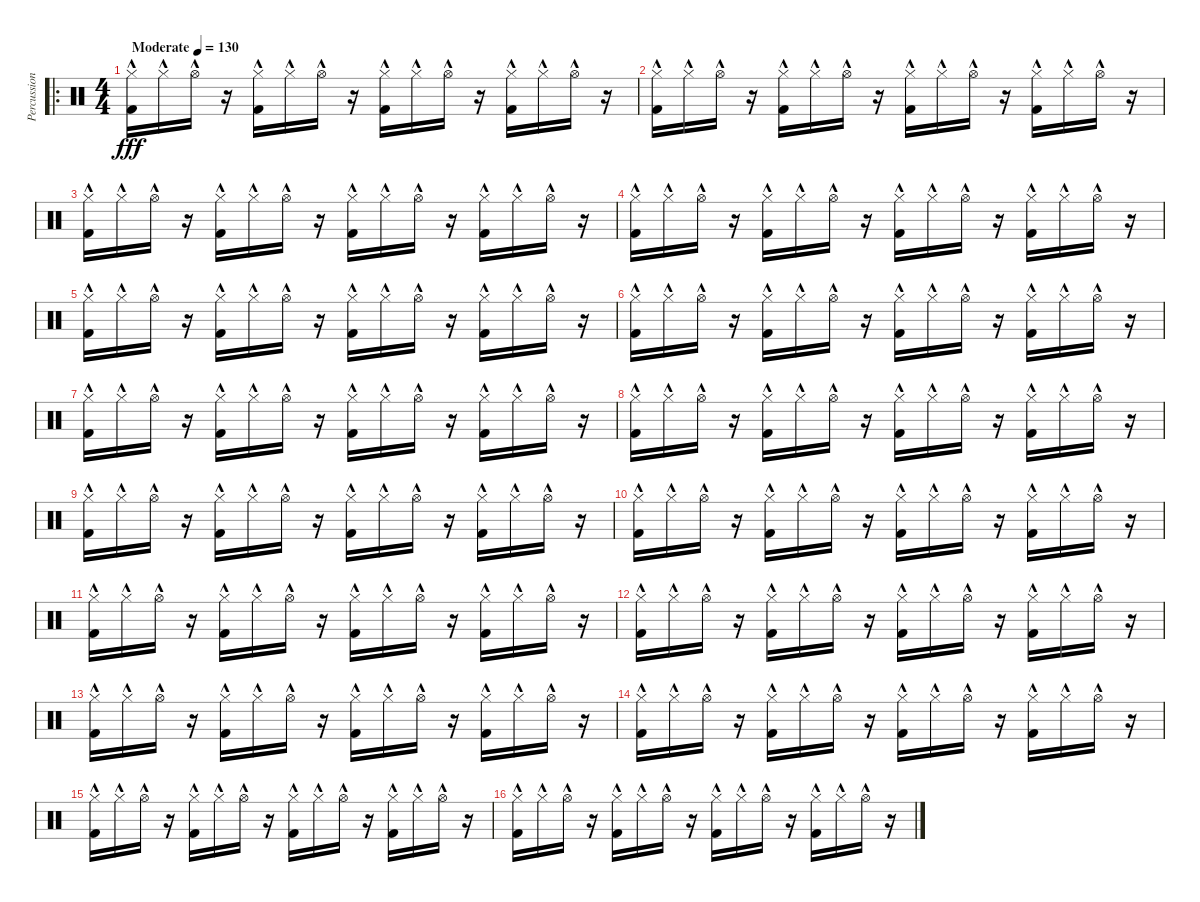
\track ("Percussion" "Percussion") {instrument percussion bank 118}
\staff {score}
\articulation defaults
\ro
\ts (4 4)
\tempo (130 "Moderate")
\clef neutral
\ks c
("Hi-Hat (closed)"{hac} "Kick (hit) 2"{hac}).16{dy fff} "Hi-Hat (closed)"{hac}.16 "Hi-Hat (open)"{hac}.16 r.16 ("Hi-Hat (closed)"{hac} "Kick (hit) 2"{hac}).16 "Hi-Hat (closed)"{hac}.16 "Hi-Hat (open)"{hac}.16 r.16 ("Hi-Hat (closed)"{hac} "Kick (hit) 2"{hac}).16 "Hi-Hat (closed)"{hac}.16 "Hi-Hat (open)"{hac}.16 r.16 ("Hi-Hat (closed)"{hac} "Kick (hit) 2"{hac}).16 "Hi-Hat (closed)"{hac}.16 "Hi-Hat (open)"{hac}.16 r.16 |
("Hi-Hat (closed)"{hac} "Kick (hit) 2"{hac}).16 "Hi-Hat (closed)"{hac}.16 "Hi-Hat (open)"{hac}.16 r.16 ("Hi-Hat (closed)"{hac} "Kick (hit) 2"{hac}).16 "Hi-Hat (closed)"{hac}.16 "Hi-Hat (open)"{hac}.16 r.16 ("Hi-Hat (closed)"{hac} "Kick (hit) 2"{hac}).16 "Hi-Hat (closed)"{hac}.16 "Hi-Hat (open)"{hac}.16 r.16 ("Hi-Hat (closed)"{hac} "Kick (hit) 2"{hac}).16 "Hi-Hat (closed)"{hac}.16 "Hi-Hat (open)"{hac}.16 r.16 |
("Hi-Hat (closed)"{hac} "Kick (hit) 2"{hac}).16 "Hi-Hat (closed)"{hac}.16 "Hi-Hat (open)"{hac}.16 r.16 ("Hi-Hat (closed)"{hac} "Kick (hit) 2"{hac}).16 "Hi-Hat (closed)"{hac}.16 "Hi-Hat (open)"{hac}.16 r.16 ("Hi-Hat (closed)"{hac} "Kick (hit) 2"{hac}).16 "Hi-Hat (closed)"{hac}.16 "Hi-Hat (open)"{hac}.16 r.16 ("Hi-Hat (closed)"{hac} "Kick (hit) 2"{hac}).16 "Hi-Hat (closed)"{hac}.16 "Hi-Hat (open)"{hac}.16 r.16 |
("Hi-Hat (closed)"{hac} "Kick (hit) 2"{hac}).16 "Hi-Hat (closed)"{hac}.16 "Hi-Hat (open)"{hac}.16 r.16 ("Hi-Hat (closed)"{hac} "Kick (hit) 2"{hac}).16 "Hi-Hat (closed)"{hac}.16 "Hi-Hat (open)"{hac}.16 r.16 ("Hi-Hat (closed)"{hac} "Kick (hit) 2"{hac}).16 "Hi-Hat (closed)"{hac}.16 "Hi-Hat (open)"{hac}.16 r.16 ("Hi-Hat (closed)"{hac} "Kick (hit) 2"{hac}).16 "Hi-Hat (closed)"{hac}.16 "Hi-Hat (open)"{hac}.16 r.16 |
("Hi-Hat (closed)"{hac} "Kick (hit) 2"{hac}).16 "Hi-Hat (closed)"{hac}.16 "Hi-Hat (open)"{hac}.16 r.16 ("Hi-Hat (closed)"{hac} "Kick (hit) 2"{hac}).16 "Hi-Hat (closed)"{hac}.16 "Hi-Hat (open)"{hac}.16 r.16 ("Hi-Hat (closed)"{hac} "Kick (hit) 2"{hac}).16 "Hi-Hat (closed)"{hac}.16 "Hi-Hat (open)"{hac}.16 r.16 ("Hi-Hat (closed)"{hac} "Kick (hit) 2"{hac}).16 "Hi-Hat (closed)"{hac}.16 "Hi-Hat (open)"{hac}.16 r.16 |
("Hi-Hat (closed)"{hac} "Kick (hit) 2"{hac}).16 "Hi-Hat (closed)"{hac}.16 "Hi-Hat (open)"{hac}.16 r.16 ("Hi-Hat (closed)"{hac} "Kick (hit) 2"{hac}).16 "Hi-Hat (closed)"{hac}.16 "Hi-Hat (open)"{hac}.16 r.16 ("Hi-Hat (closed)"{hac} "Kick (hit) 2"{hac}).16 "Hi-Hat (closed)"{hac}.16 "Hi-Hat (open)"{hac}.16 r.16 ("Hi-Hat (closed)"{hac} "Kick (hit) 2"{hac}).16 "Hi-Hat (closed)"{hac}.16 "Hi-Hat (open)"{hac}.16 r.16 |
("Hi-Hat (closed)"{hac} "Kick (hit) 2"{hac}).16 "Hi-Hat (closed)"{hac}.16 "Hi-Hat (open)"{hac}.16 r.16 ("Hi-Hat (closed)"{hac} "Kick (hit) 2"{hac}).16 "Hi-Hat (closed)"{hac}.16 "Hi-Hat (open)"{hac}.16 r.16 ("Hi-Hat (closed)"{hac} "Kick (hit) 2"{hac}).16 "Hi-Hat (closed)"{hac}.16 "Hi-Hat (open)"{hac}.16 r.16 ("Hi-Hat (closed)"{hac} "Kick (hit) 2"{hac}).16 "Hi-Hat (closed)"{hac}.16 "Hi-Hat (open)"{hac}.16 r.16 |
("Hi-Hat (closed)"{hac} "Kick (hit) 2"{hac}).16 "Hi-Hat (closed)"{hac}.16 "Hi-Hat (open)"{hac}.16 r.16 ("Hi-Hat (closed)"{hac} "Kick (hit) 2"{hac}).16 "Hi-Hat (closed)"{hac}.16 "Hi-Hat (open)"{hac}.16 r.16 ("Hi-Hat (closed)"{hac} "Kick (hit) 2"{hac}).16 "Hi-Hat (closed)"{hac}.16 "Hi-Hat (open)"{hac}.16 r.16 ("Hi-Hat (closed)"{hac} "Kick (hit) 2"{hac}).16 "Hi-Hat (closed)"{hac}.16 "Hi-Hat (open)"{hac}.16 r.16 |
("Hi-Hat (closed)"{hac} "Kick (hit) 2"{hac}).16 "Hi-Hat (closed)"{hac}.16 "Hi-Hat (open)"{hac}.16 r.16 ("Hi-Hat (closed)"{hac} "Kick (hit) 2"{hac}).16 "Hi-Hat (closed)"{hac}.16 "Hi-Hat (open)"{hac}.16 r.16 ("Hi-Hat (closed)"{hac} "Kick (hit) 2"{hac}).16 "Hi-Hat (closed)"{hac}.16 "Hi-Hat (open)"{hac}.16 r.16 ("Hi-Hat (closed)"{hac} "Kick (hit) 2"{hac}).16 "Hi-Hat (closed)"{hac}.16 "Hi-Hat (open)"{hac}.16 r.16 |
("Hi-Hat (closed)"{hac} "Kick (hit) 2"{hac}).16 "Hi-Hat (closed)"{hac}.16 "Hi-Hat (open)"{hac}.16 r.16 ("Hi-Hat (closed)"{hac} "Kick (hit) 2"{hac}).16 "Hi-Hat (closed)"{hac}.16 "Hi-Hat (open)"{hac}.16 r.16 ("Hi-Hat (closed)"{hac} "Kick (hit) 2"{hac}).16 "Hi-Hat (closed)"{hac}.16 "Hi-Hat (open)"{hac}.16 r.16 ("Hi-Hat (closed)"{hac} "Kick (hit) 2"{hac}).16 "Hi-Hat (closed)"{hac}.16 "Hi-Hat (open)"{hac}.16 r.16 |
("Hi-Hat (closed)"{hac} "Kick (hit) 2"{hac}).16 "Hi-Hat (closed)"{hac}.16 "Hi-Hat (open)"{hac}.16 r.16 ("Hi-Hat (closed)"{hac} "Kick (hit) 2"{hac}).16 "Hi-Hat (closed)"{hac}.16 "Hi-Hat (open)"{hac}.16 r.16 ("Hi-Hat (closed)"{hac} "Kick (hit) 2"{hac}).16 "Hi-Hat (closed)"{hac}.16 "Hi-Hat (open)"{hac}.16 r.16 ("Hi-Hat (closed)"{hac} "Kick (hit) 2"{hac}).16 "Hi-Hat (closed)"{hac}.16 "Hi-Hat (open)"{hac}.16 r.16 |
("Hi-Hat (closed)"{hac} "Kick (hit) 2"{hac}).16 "Hi-Hat (closed)"{hac}.16 "Hi-Hat (open)"{hac}.16 r.16 ("Hi-Hat (closed)"{hac} "Kick (hit) 2"{hac}).16 "Hi-Hat (closed)"{hac}.16 "Hi-Hat (open)"{hac}.16 r.16 ("Hi-Hat (closed)"{hac} "Kick (hit) 2"{hac}).16 "Hi-Hat (closed)"{hac}.16 "Hi-Hat (open)"{hac}.16 r.16 ("Hi-Hat (closed)"{hac} "Kick (hit) 2"{hac}).16 "Hi-Hat (closed)"{hac}.16 "Hi-Hat (open)"{hac}.16 r.16 |
("Hi-Hat (closed)"{hac} "Kick (hit) 2"{hac}).16 "Hi-Hat (closed)"{hac}.16 "Hi-Hat (open)"{hac}.16 r.16 ("Hi-Hat (closed)"{hac} "Kick (hit) 2"{hac}).16 "Hi-Hat (closed)"{hac}.16 "Hi-Hat (open)"{hac}.16 r.16 ("Hi-Hat (closed)"{hac} "Kick (hit) 2"{hac}).16 "Hi-Hat (closed)"{hac}.16 "Hi-Hat (open)"{hac}.16 r.16 ("Hi-Hat (closed)"{hac} "Kick (hit) 2"{hac}).16 "Hi-Hat (closed)"{hac}.16 "Hi-Hat (open)"{hac}.16 r.16 |
("Hi-Hat (closed)"{hac} "Kick (hit) 2"{hac}).16 "Hi-Hat (closed)"{hac}.16 "Hi-Hat (open)"{hac}.16 r.16 ("Hi-Hat (closed)"{hac} "Kick (hit) 2"{hac}).16 "Hi-Hat (closed)"{hac}.16 "Hi-Hat (open)"{hac}.16 r.16 ("Hi-Hat (closed)"{hac} "Kick (hit) 2"{hac}).16 "Hi-Hat (closed)"{hac}.16 "Hi-Hat (open)"{hac}.16 r.16 ("Hi-Hat (closed)"{hac} "Kick (hit) 2"{hac}).16 "Hi-Hat (closed)"{hac}.16 "Hi-Hat (open)"{hac}.16 r.16 |
("Hi-Hat (closed)"{hac} "Kick (hit) 2"{hac}).16 "Hi-Hat (closed)"{hac}.16 "Hi-Hat (open)"{hac}.16 r.16 ("Hi-Hat (closed)"{hac} "Kick (hit) 2"{hac}).16 "Hi-Hat (closed)"{hac}.16 "Hi-Hat (open)"{hac}.16 r.16 ("Hi-Hat (closed)"{hac} "Kick (hit) 2"{hac}).16 "Hi-Hat (closed)"{hac}.16 "Hi-Hat (open)"{hac}.16 r.16 ("Hi-Hat (closed)"{hac} "Kick (hit) 2"{hac}).16 "Hi-Hat (closed)"{hac}.16 "Hi-Hat (open)"{hac}.16 r.16 |
("Hi-Hat (closed)"{hac} "Kick (hit) 2"{hac}).16 "Hi-Hat (closed)"{hac}.16 "Hi-Hat (open)"{hac}.16 r.16 ("Hi-Hat (closed)"{hac} "Kick (hit) 2"{hac}).16 "Hi-Hat (closed)"{hac}.16 "Hi-Hat (open)"{hac}.16 r.16 ("Hi-Hat (closed)"{hac} "Kick (hit) 2"{hac}).16 "Hi-Hat (closed)"{hac}.16 "Hi-Hat (open)"{hac}.16 r.16 ("Hi-Hat (closed)"{hac} "Kick (hit) 2"{hac}).16 "Hi-Hat (closed)"{hac}.16 "Hi-Hat (open)"{hac}.16 r.16
